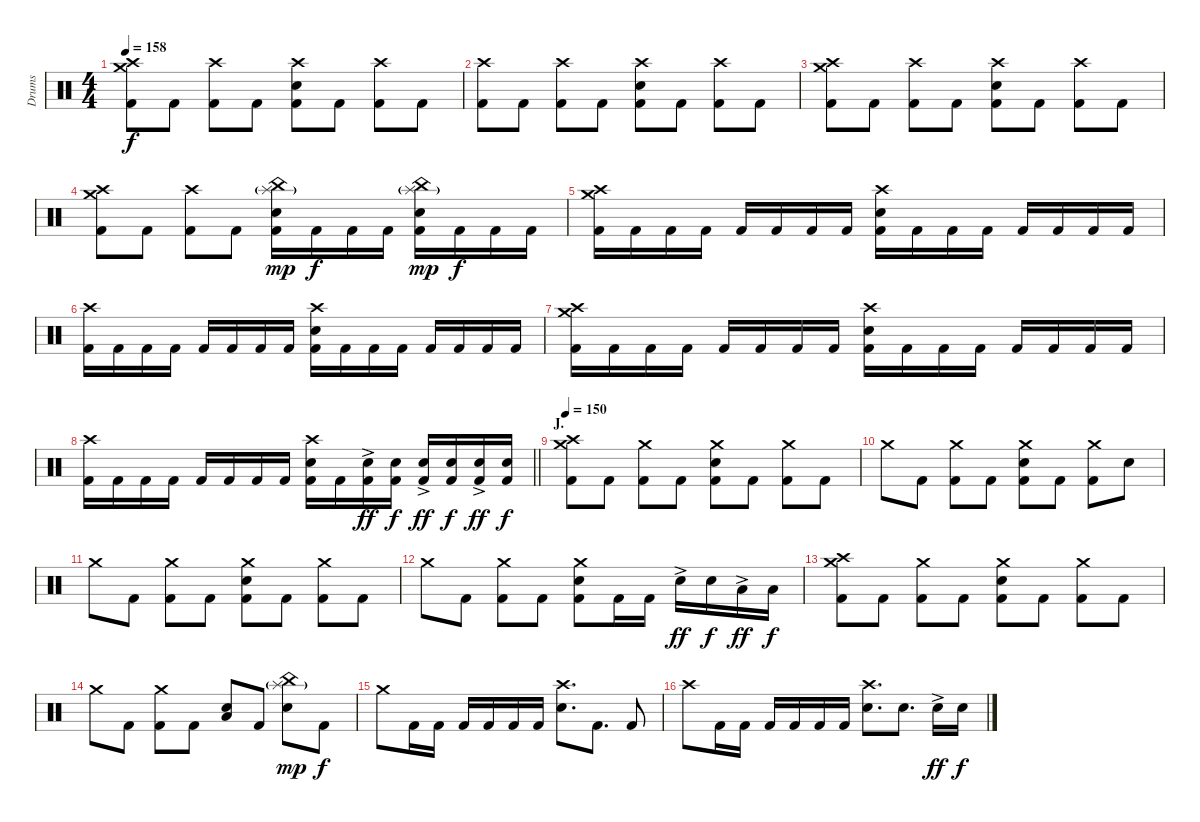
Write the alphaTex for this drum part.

\track ("Drums" "Drums") {instrument percussion}
\staff {score}
\articulation defaults
\ts (4 4)
\tempo 158
\clef neutral
\ks c
("Crash medium (hit)" "Crash high (hit)" "Kick (hit) 2").8{dy f} "Kick (hit) 2".8 ("Crash high (hit)" "Kick (hit) 2").8 "Kick (hit) 2".8 ("Crash high (hit)" "Electric Snare (hit)" "Kick (hit) 2").8 "Kick (hit) 2".8 ("Crash high (hit)" "Kick (hit) 2").8 "Kick (hit) 2".8 |
("Crash high (hit)" "Kick (hit) 2").8 "Kick (hit) 2".8 ("Crash high (hit)" "Kick (hit) 2").8 "Kick (hit) 2".8 ("Crash high (hit)" "Electric Snare (hit)" "Kick (hit) 2").8 "Kick (hit) 2".8 ("Crash high (hit)" "Kick (hit) 2").8 "Kick (hit) 2".8 |
("Crash medium (hit)" "Crash high (hit)" "Kick (hit) 2").8 "Kick (hit) 2".8 ("Crash high (hit)" "Kick (hit) 2").8 "Kick (hit) 2".8 ("Crash high (hit)" "Electric Snare (hit)" "Kick (hit) 2").8 "Kick (hit) 2".8 ("Crash high (hit)" "Kick (hit) 2").8 "Kick (hit) 2".8 |
("Crash medium (hit)" "Crash high (hit)" "Kick (hit) 2").8 "Kick (hit) 2".8 ("Crash high (hit)" "Kick (hit) 2").8 "Kick (hit) 2".8 ("China (hit)" "Splash (hit)"{g} "Electric Snare (hit)" "Kick (hit) 2").16{dy mp} "Kick (hit) 2".16{dy f} "Kick (hit) 2".16 "Kick (hit) 2".16 ("China (hit)" "Splash (hit)"{g} "Electric Snare (hit)" "Kick (hit) 2").16{dy mp} "Kick (hit) 2".16{dy f} "Kick (hit) 2".16 "Kick (hit) 2".16 |
("Crash medium (hit)" "Crash high (hit)" "Kick (hit) 2").16 "Kick (hit) 2".16 "Kick (hit) 2".16 "Kick (hit) 2".16 "Kick (hit) 2".16 "Kick (hit) 2".16 "Kick (hit) 2".16 "Kick (hit) 2".16 ("Crash high (hit)" "Electric Snare (hit)" "Kick (hit) 2").16 "Kick (hit) 2".16 "Kick (hit) 2".16 "Kick (hit) 2".16 "Kick (hit) 2".16 "Kick (hit) 2".16 "Kick (hit) 2".16 "Kick (hit) 2".16 |
("Crash high (hit)" "Kick (hit) 2").16 "Kick (hit) 2".16 "Kick (hit) 2".16 "Kick (hit) 2".16 "Kick (hit) 2".16 "Kick (hit) 2".16 "Kick (hit) 2".16 "Kick (hit) 2".16 ("Crash high (hit)" "Electric Snare (hit)" "Kick (hit) 2").16 "Kick (hit) 2".16 "Kick (hit) 2".16 "Kick (hit) 2".16 "Kick (hit) 2".16 "Kick (hit) 2".16 "Kick (hit) 2".16 "Kick (hit) 2".16 |
("Crash medium (hit)" "Crash high (hit)" "Kick (hit) 2").16 "Kick (hit) 2".16 "Kick (hit) 2".16 "Kick (hit) 2".16 "Kick (hit) 2".16 "Kick (hit) 2".16 "Kick (hit) 2".16 "Kick (hit) 2".16 ("Crash high (hit)" "Electric Snare (hit)" "Kick (hit) 2").16 "Kick (hit) 2".16 "Kick (hit) 2".16 "Kick (hit) 2".16 "Kick (hit) 2".16 "Kick (hit) 2".16 "Kick (hit) 2".16 "Kick (hit) 2".16 |
\barLineRight lightlight
("Crash high (hit)" "Kick (hit) 2").16 "Kick (hit) 2".16 "Kick (hit) 2".16 "Kick (hit) 2".16 "Kick (hit) 2".16 "Kick (hit) 2".16 "Kick (hit) 2".16 "Kick (hit) 2".16 ("Crash high (hit)" "Electric Snare (hit)" "Kick (hit) 2").16 "Kick (hit) 2".16 ("Electric Snare (hit)"{ac} "Kick (hit) 2").16{dy ff} ("Electric Snare (hit)" "Kick (hit) 2").16{dy f} ("Electric Snare (hit)"{ac} "Kick (hit) 2").16{dy ff} ("Electric Snare (hit)" "Kick (hit) 2").16{dy f} ("Electric Snare (hit)"{ac} "Kick (hit) 2").16{dy ff} ("Electric Snare (hit)" "Kick (hit) 2").16{dy f} |
\section ("" "J.")
\tempo 150
("Crash medium (hit)" "Crash high (hit)" "Kick (hit) 2").8 "Kick (hit) 2".8 ("Crash medium (hit)" "Kick (hit) 2").8 "Kick (hit) 2".8 ("Crash medium (hit)" "Electric Snare (hit)" "Kick (hit) 2").8 "Kick (hit) 2".8 ("Crash medium (hit)" "Kick (hit) 2").8 "Kick (hit) 2".8 |
"Crash medium (hit)".8 "Kick (hit) 2".8 ("Crash medium (hit)" "Kick (hit) 2").8 "Kick (hit) 2".8 ("Crash medium (hit)" "Electric Snare (hit)" "Kick (hit) 2").8 "Kick (hit) 2".8 ("Crash medium (hit)" "Kick (hit) 2").8 "Electric Snare (hit)".8 |
"Crash medium (hit)".8 "Kick (hit) 2".8 ("Crash medium (hit)" "Kick (hit) 2").8 "Kick (hit) 2".8 ("Crash medium (hit)" "Electric Snare (hit)" "Kick (hit) 2").8 "Kick (hit) 2".8 ("Crash medium (hit)" "Kick (hit) 2").8 "Kick (hit) 2".8 |
"Crash medium (hit)".8 "Kick (hit) 2".8 ("Crash medium (hit)" "Kick (hit) 2").8 "Kick (hit) 2".8 ("Crash medium (hit)" "Electric Snare (hit)" "Kick (hit) 2").8 "Kick (hit) 2".16 "Kick (hit) 2".16 "Electric Snare (hit)"{ac}.16{dy ff} "Electric Snare (hit)".16{dy f} "Low Tom (hit)"{ac}.16{dy ff} "Low Tom (hit)".16{dy f} |
("Crash medium (hit)" "Crash high (hit)" "Kick (hit) 2").8 "Kick (hit) 2".8 ("Crash medium (hit)" "Kick (hit) 2").8 "Kick (hit) 2".8 ("Crash medium (hit)" "Electric Snare (hit)" "Kick (hit) 2").8 "Kick (hit) 2".8 ("Crash medium (hit)" "Kick (hit) 2").8 "Kick (hit) 2".8 |
"Crash medium (hit)".8 "Kick (hit) 2".8 ("Crash medium (hit)" "Kick (hit) 2").8 "Kick (hit) 2".8 ("Electric Snare (hit)" "Low Floor Tom (hit)").8{bu 120} "Kick (hit) 2".8 ("China (hit)" "Splash (hit)"{g} "Electric Snare (hit)").8{dy mp} "Kick (hit) 2".8{dy f} |
"Crash medium (hit)".8 "Kick (hit) 2".16 "Kick (hit) 2".16 "Kick (hit) 2".16 "Kick (hit) 2".16 "Kick (hit) 2".16 "Kick (hit) 2".16 ("Crash high (hit)" "Electric Snare (hit)").8{d} "Kick (hit) 2".8{d} "Kick (hit) 2".8 |
"Crash high (hit)".8 "Kick (hit) 2".16 "Kick (hit) 2".16 "Kick (hit) 2".16 "Kick (hit) 2".16 "Kick (hit) 2".16 "Kick (hit) 2".16 ("Crash high (hit)" "Electric Snare (hit)").8{d} "Electric Snare (hit)".8{d} "Electric Snare (hit)"{ac}.16{dy ff} "Electric Snare (hit)".16{dy f}
